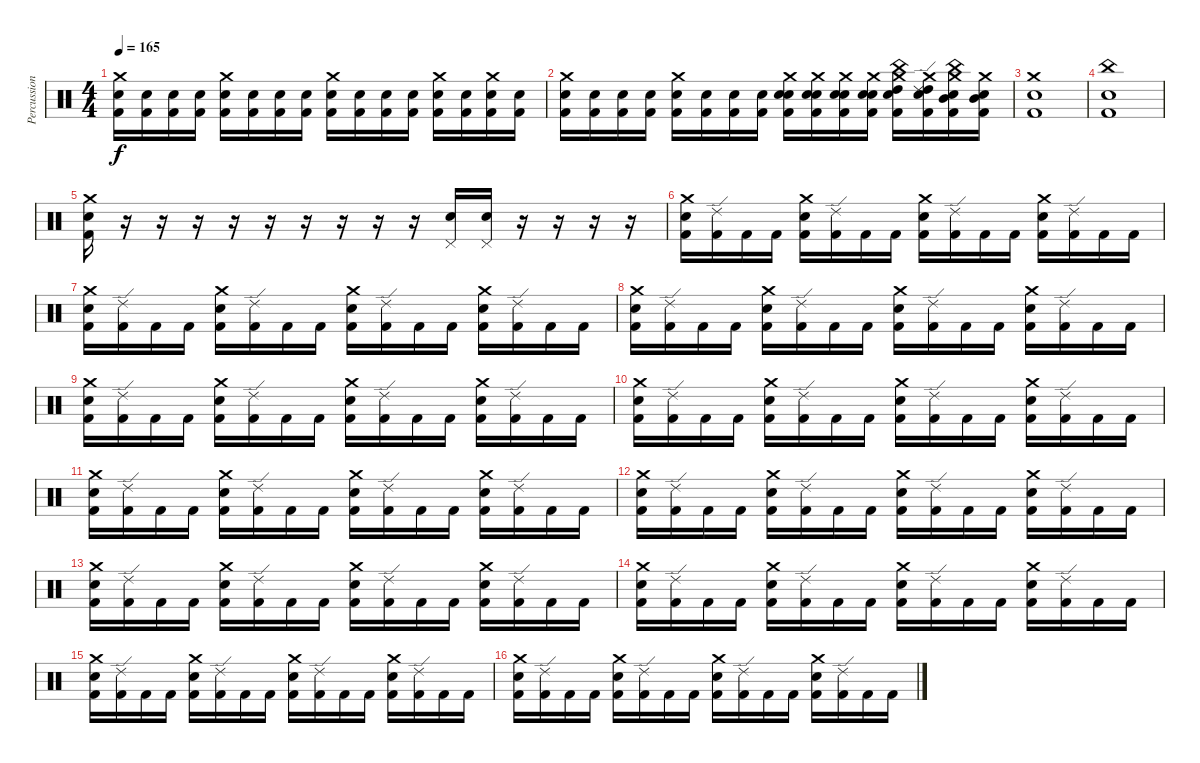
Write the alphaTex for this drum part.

\track ("Percussions" "Percussion") {instrument percussion}
\staff {score}
\articulation defaults
\ts (4 4)
\tempo 165
\clef neutral
\ks c
("Crash medium (hit)" "Electric Snare (hit)" "Kick (hit) 2").16{dy f} ("Electric Snare (hit)" "Kick (hit) 2").16 ("Electric Snare (hit)" "Kick (hit) 2").16 ("Electric Snare (hit)" "Kick (hit) 2").16 ("Crash medium (hit)" "Electric Snare (hit)" "Kick (hit) 2").16 ("Electric Snare (hit)" "Kick (hit) 2").16 ("Electric Snare (hit)" "Kick (hit) 2").16 ("Electric Snare (hit)" "Kick (hit) 2").16 ("Crash medium (hit)" "Electric Snare (hit)" "Kick (hit) 2").16 ("Electric Snare (hit)" "Kick (hit) 2").16 ("Electric Snare (hit)" "Kick (hit) 2").16 ("Electric Snare (hit)" "Kick (hit) 2").16 ("Crash medium (hit)" "Electric Snare (hit)" "Kick (hit) 2").16 ("Electric Snare (hit)" "Kick (hit) 2").16 ("Crash medium (hit)" "Electric Snare (hit)" "Kick (hit) 2").16 ("Electric Snare (hit)" "Kick (hit) 2").16 |
("Crash medium (hit)" "Electric Snare (hit)" "Kick (hit) 2").16 ("Electric Snare (hit)" "Kick (hit) 2").16 ("Electric Snare (hit)" "Kick (hit) 2").16 ("Electric Snare (hit)" "Kick (hit) 2").16 ("Crash medium (hit)" "Electric Snare (hit)" "Kick (hit) 2").16 ("Electric Snare (hit)" "Kick (hit) 2").16 ("Electric Snare (hit)" "Kick (hit) 2").16 ("Electric Snare (hit)" "Kick (hit) 2").16 ("Snare (hit) 2" "Crash medium (hit)" "Electric Snare (hit)" "Kick (hit) 2").16 ("Snare (hit) 2" "Crash medium (hit)" "Electric Snare (hit)" "Kick (hit) 2").16 ("Snare (hit) 2" "Crash medium (hit)" "Electric Snare (hit)" "Kick (hit) 2").16 ("Snare (hit) 2" "Crash medium (hit)" "Electric Snare (hit)" "Kick (hit) 2").16 ("High Tom (hit)" "China (hit)" "Crash medium (hit)" "Electric Snare (hit)" "Kick (hit) 2").16 ("High Tom (hit)" "Ride (edge) 2" "Crash medium (hit)" "Electric Snare (hit)" "Kick (hit) 2").16 ("Mid Tom (hit)" "China (hit)" "Crash medium (hit)" "Electric Snare (hit)" "Kick (hit) 2").16 ("Mid Tom (hit)" "Crash medium (hit)" "Electric Snare (hit)" "Kick (hit) 2").16 |
("Snare (hit) 2" "Crash medium (hit)" "Kick (hit) 2").1 |
("Snare (hit) 2" "China (hit)" "Kick (hit) 2").1 |
("Snare (hit) 2" "Crash medium (hit)" "Kick (hit) 2").16 r.16 r.16 r.16 r.16 r.16 r.16 r.16 r.16 r.16 ("Pedal Hi-Hat (hit)" "Electric Snare (hit)").16 ("Pedal Hi-Hat (hit)" "Electric Snare (hit)").16 r.16 r.16 r.16 r.16 |
("Snare (hit) 2" "Crash medium (hit)" "Kick (hit) 2").16 ("Ride (edge) 2" "Kick (hit) 2").16 "Kick (hit) 2".16 "Kick (hit) 2".16 ("Snare (hit) 2" "Crash medium (hit)" "Kick (hit) 2").16 ("Ride (edge) 2" "Kick (hit) 2").16 "Kick (hit) 2".16 "Kick (hit) 2".16 ("Snare (hit) 2" "Crash medium (hit)" "Kick (hit) 2").16 ("Ride (edge) 2" "Kick (hit) 2").16 "Kick (hit) 2".16 "Kick (hit) 2".16 ("Snare (hit) 2" "Crash medium (hit)" "Kick (hit) 2").16 ("Ride (edge) 2" "Kick (hit) 2").16 "Kick (hit) 2".16 "Kick (hit) 2".16 |
("Snare (hit) 2" "Crash medium (hit)" "Kick (hit) 2").16 ("Ride (edge) 2" "Kick (hit) 2").16 "Kick (hit) 2".16 "Kick (hit) 2".16 ("Snare (hit) 2" "Crash medium (hit)" "Kick (hit) 2").16 ("Ride (edge) 2" "Kick (hit) 2").16 "Kick (hit) 2".16 "Kick (hit) 2".16 ("Snare (hit) 2" "Crash medium (hit)" "Kick (hit) 2").16 ("Ride (edge) 2" "Kick (hit) 2").16 "Kick (hit) 2".16 "Kick (hit) 2".16 ("Snare (hit) 2" "Crash medium (hit)" "Kick (hit) 2").16 ("Ride (edge) 2" "Kick (hit) 2").16 "Kick (hit) 2".16 "Kick (hit) 2".16 |
("Snare (hit) 2" "Crash medium (hit)" "Kick (hit) 2").16 ("Ride (edge) 2" "Kick (hit) 2").16 "Kick (hit) 2".16 "Kick (hit) 2".16 ("Snare (hit) 2" "Crash medium (hit)" "Kick (hit) 2").16 ("Ride (edge) 2" "Kick (hit) 2").16 "Kick (hit) 2".16 "Kick (hit) 2".16 ("Snare (hit) 2" "Crash medium (hit)" "Kick (hit) 2").16 ("Ride (edge) 2" "Kick (hit) 2").16 "Kick (hit) 2".16 "Kick (hit) 2".16 ("Snare (hit) 2" "Crash medium (hit)" "Kick (hit) 2").16 ("Ride (edge) 2" "Kick (hit) 2").16 "Kick (hit) 2".16 "Kick (hit) 2".16 |
("Snare (hit) 2" "Crash medium (hit)" "Kick (hit) 2").16 ("Ride (edge) 2" "Kick (hit) 2").16 "Kick (hit) 2".16 "Kick (hit) 2".16 ("Snare (hit) 2" "Crash medium (hit)" "Kick (hit) 2").16 ("Ride (edge) 2" "Kick (hit) 2").16 "Kick (hit) 2".16 "Kick (hit) 2".16 ("Snare (hit) 2" "Crash medium (hit)" "Kick (hit) 2").16 ("Ride (edge) 2" "Kick (hit) 2").16 "Kick (hit) 2".16 "Kick (hit) 2".16 ("Snare (hit) 2" "Crash medium (hit)" "Kick (hit) 2").16 ("Ride (edge) 2" "Kick (hit) 2").16 "Kick (hit) 2".16 "Kick (hit) 2".16 |
("Snare (hit) 2" "Crash medium (hit)" "Kick (hit) 2").16 ("Ride (edge) 2" "Kick (hit) 2").16 "Kick (hit) 2".16 "Kick (hit) 2".16 ("Snare (hit) 2" "Crash medium (hit)" "Kick (hit) 2").16 ("Ride (edge) 2" "Kick (hit) 2").16 "Kick (hit) 2".16 "Kick (hit) 2".16 ("Snare (hit) 2" "Crash medium (hit)" "Kick (hit) 2").16 ("Ride (edge) 2" "Kick (hit) 2").16 "Kick (hit) 2".16 "Kick (hit) 2".16 ("Snare (hit) 2" "Crash medium (hit)" "Kick (hit) 2").16 ("Ride (edge) 2" "Kick (hit) 2").16 "Kick (hit) 2".16 "Kick (hit) 2".16 |
("Snare (hit) 2" "Crash medium (hit)" "Kick (hit) 2").16 ("Ride (edge) 2" "Kick (hit) 2").16 "Kick (hit) 2".16 "Kick (hit) 2".16 ("Snare (hit) 2" "Crash medium (hit)" "Kick (hit) 2").16 ("Ride (edge) 2" "Kick (hit) 2").16 "Kick (hit) 2".16 "Kick (hit) 2".16 ("Snare (hit) 2" "Crash medium (hit)" "Kick (hit) 2").16 ("Ride (edge) 2" "Kick (hit) 2").16 "Kick (hit) 2".16 "Kick (hit) 2".16 ("Snare (hit) 2" "Crash medium (hit)" "Kick (hit) 2").16 ("Ride (edge) 2" "Kick (hit) 2").16 "Kick (hit) 2".16 "Kick (hit) 2".16 |
("Snare (hit) 2" "Crash medium (hit)" "Kick (hit) 2").16 ("Ride (edge) 2" "Kick (hit) 2").16 "Kick (hit) 2".16 "Kick (hit) 2".16 ("Snare (hit) 2" "Crash medium (hit)" "Kick (hit) 2").16 ("Ride (edge) 2" "Kick (hit) 2").16 "Kick (hit) 2".16 "Kick (hit) 2".16 ("Snare (hit) 2" "Crash medium (hit)" "Kick (hit) 2").16 ("Ride (edge) 2" "Kick (hit) 2").16 "Kick (hit) 2".16 "Kick (hit) 2".16 ("Snare (hit) 2" "Crash medium (hit)" "Kick (hit) 2").16 ("Ride (edge) 2" "Kick (hit) 2").16 "Kick (hit) 2".16 "Kick (hit) 2".16 |
("Snare (hit) 2" "Crash medium (hit)" "Kick (hit) 2").16 ("Ride (edge) 2" "Kick (hit) 2").16 "Kick (hit) 2".16 "Kick (hit) 2".16 ("Snare (hit) 2" "Crash medium (hit)" "Kick (hit) 2").16 ("Ride (edge) 2" "Kick (hit) 2").16 "Kick (hit) 2".16 "Kick (hit) 2".16 ("Snare (hit) 2" "Crash medium (hit)" "Kick (hit) 2").16 ("Ride (edge) 2" "Kick (hit) 2").16 "Kick (hit) 2".16 "Kick (hit) 2".16 ("Snare (hit) 2" "Crash medium (hit)" "Kick (hit) 2").16 ("Ride (edge) 2" "Kick (hit) 2").16 "Kick (hit) 2".16 "Kick (hit) 2".16 |
("Snare (hit) 2" "Crash medium (hit)" "Kick (hit) 2").16 ("Ride (edge) 2" "Kick (hit) 2").16 "Kick (hit) 2".16 "Kick (hit) 2".16 ("Snare (hit) 2" "Crash medium (hit)" "Kick (hit) 2").16 ("Ride (edge) 2" "Kick (hit) 2").16 "Kick (hit) 2".16 "Kick (hit) 2".16 ("Snare (hit) 2" "Crash medium (hit)" "Kick (hit) 2").16 ("Ride (edge) 2" "Kick (hit) 2").16 "Kick (hit) 2".16 "Kick (hit) 2".16 ("Snare (hit) 2" "Crash medium (hit)" "Kick (hit) 2").16 ("Ride (edge) 2" "Kick (hit) 2").16 "Kick (hit) 2".16 "Kick (hit) 2".16 |
("Snare (hit) 2" "Crash medium (hit)" "Kick (hit) 2").16 ("Ride (edge) 2" "Kick (hit) 2").16 "Kick (hit) 2".16 "Kick (hit) 2".16 ("Snare (hit) 2" "Crash medium (hit)" "Kick (hit) 2").16 ("Ride (edge) 2" "Kick (hit) 2").16 "Kick (hit) 2".16 "Kick (hit) 2".16 ("Snare (hit) 2" "Crash medium (hit)" "Kick (hit) 2").16 ("Ride (edge) 2" "Kick (hit) 2").16 "Kick (hit) 2".16 "Kick (hit) 2".16 ("Snare (hit) 2" "Crash medium (hit)" "Kick (hit) 2").16 ("Ride (edge) 2" "Kick (hit) 2").16 "Kick (hit) 2".16 "Kick (hit) 2".16 |
("Snare (hit) 2" "Crash medium (hit)" "Kick (hit) 2").16 ("Ride (edge) 2" "Kick (hit) 2").16 "Kick (hit) 2".16 "Kick (hit) 2".16 ("Snare (hit) 2" "Crash medium (hit)" "Kick (hit) 2").16 ("Ride (edge) 2" "Kick (hit) 2").16 "Kick (hit) 2".16 "Kick (hit) 2".16 ("Snare (hit) 2" "Crash medium (hit)" "Kick (hit) 2").16 ("Ride (edge) 2" "Kick (hit) 2").16 "Kick (hit) 2".16 "Kick (hit) 2".16 ("Snare (hit) 2" "Crash medium (hit)" "Kick (hit) 2").16 ("Ride (edge) 2" "Kick (hit) 2").16 "Kick (hit) 2".16 "Kick (hit) 2".16
